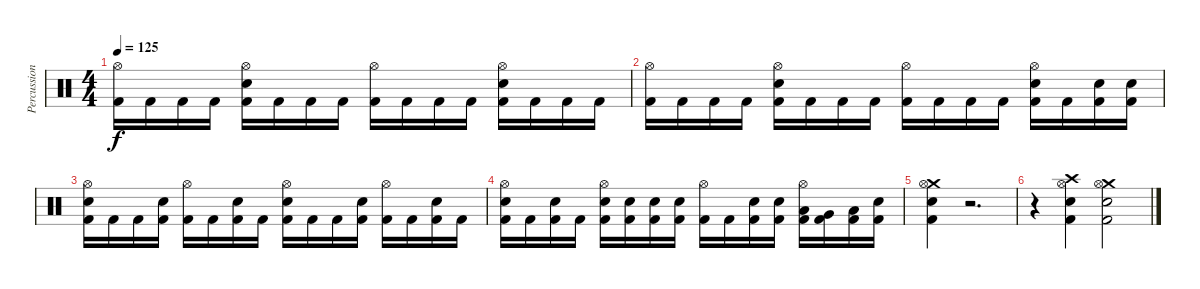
\track ("Percussion" "Percussion") {instrument percussion}
\staff {score}
\articulation defaults
\ts (4 4)
\tempo 125
\clef neutral
\ks c
("Hi-Hat (open)" "Kick (hit) 2").16{dy f} "Kick (hit) 2".16 "Kick (hit) 2".16 "Kick (hit) 2".16 ("Hi-Hat (open)" "Electric Snare (hit)" "Kick (hit) 2").16 "Kick (hit) 2".16 "Kick (hit) 2".16 "Kick (hit) 2".16 ("Hi-Hat (open)" "Kick (hit) 2").16 "Kick (hit) 2".16 "Kick (hit) 2".16 "Kick (hit) 2".16 ("Hi-Hat (open)" "Electric Snare (hit)" "Kick (hit) 2").16 "Kick (hit) 2".16 "Kick (hit) 2".16 "Kick (hit) 2".16 |
("Hi-Hat (open)" "Kick (hit) 2").16 "Kick (hit) 2".16 "Kick (hit) 2".16 "Kick (hit) 2".16 ("Hi-Hat (open)" "Electric Snare (hit)" "Kick (hit) 2").16 "Kick (hit) 2".16 "Kick (hit) 2".16 "Kick (hit) 2".16 ("Hi-Hat (open)" "Kick (hit) 2").16 "Kick (hit) 2".16 "Kick (hit) 2".16 "Kick (hit) 2".16 ("Hi-Hat (open)" "Electric Snare (hit)" "Kick (hit) 2").16 "Kick (hit) 2".16 ("Electric Snare (hit)" "Kick (hit) 2").16 ("Electric Snare (hit)" "Kick (hit) 2").16 |
("Hi-Hat (open)" "Electric Snare (hit)" "Kick (hit) 2").16 "Kick (hit) 2".16 "Kick (hit) 2".16 ("Electric Snare (hit)" "Kick (hit) 2").16 ("Hi-Hat (open)" "Kick (hit) 2").16 "Kick (hit) 2".16 ("Electric Snare (hit)" "Kick (hit) 2").16 "Kick (hit) 2".16 ("Hi-Hat (open)" "Electric Snare (hit)" "Kick (hit) 2").16 "Kick (hit) 2".16 "Kick (hit) 2".16 ("Electric Snare (hit)" "Kick (hit) 2").16 ("Hi-Hat (open)" "Kick (hit) 2").16 "Kick (hit) 2".16 ("Electric Snare (hit)" "Kick (hit) 2").16 "Kick (hit) 2".16 |
("Hi-Hat (open)" "Electric Snare (hit)" "Kick (hit) 2").16 "Kick (hit) 2".16 ("Electric Snare (hit)" "Kick (hit) 2").16 "Kick (hit) 2".16 ("Hi-Hat (open)" "Electric Snare (hit)" "Kick (hit) 2").16 ("Electric Snare (hit)" "Kick (hit) 2").16 ("Electric Snare (hit)" "Kick (hit) 2").16 ("Electric Snare (hit)" "Kick (hit) 2").16 ("Hi-Hat (open)" "Kick (hit) 2").16 "Kick (hit) 2".16 ("Electric Snare (hit)" "Kick (hit) 2").16 ("Electric Snare (hit)" "Kick (hit) 2").16 ("Hi-Hat (open)" "Low Tom (hit)" "Kick (hit) 2").16 ("Very Low Tom (hit)" "Kick (hit) 2").16 ("Low Floor Tom (hit)" "Kick (hit) 2").16 ("Electric Snare (hit)" "Kick (hit) 2").16 |
("Crash medium (hit)" "Hi-Hat (open)" "Electric Snare (hit)" "Kick (hit) 2").4 r.2{d} |
r.4 ("Crash high (hit)" "Hi-Hat (open)" "Electric Snare (hit)" "Kick (hit) 2").4 ("Crash medium (hit)" "Hi-Hat (open)" "Electric Snare (hit)" "Kick (hit) 2").2
